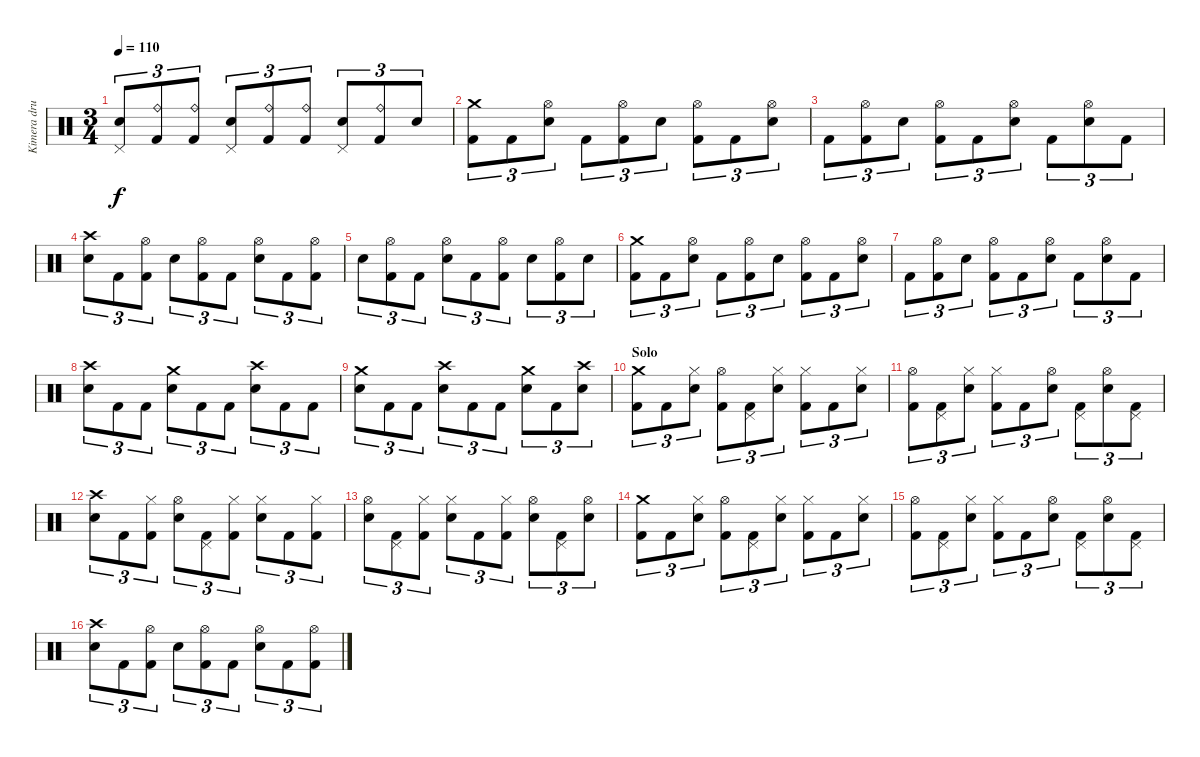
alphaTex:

\track ("Kimera drummer" "Kimera dru") {instrument percussion}
\staff {score}
\articulation defaults
\ts (3 4)
\tempo 110
\clef neutral
\ks c
("Electric Snare (hit)" "Pedal Hi-Hat (hit)").8{tu (3 2) dy f} ("Ride (bell)" "Kick (hit) 2").8{tu (3 2)} ("Ride (bell)" "Kick (hit) 2").8{tu (3 2)} ("Electric Snare (hit)" "Pedal Hi-Hat (hit)").8{tu (3 2)} ("Ride (bell)" "Kick (hit) 2").8{tu (3 2)} ("Ride (bell)" "Kick (hit) 2").8{tu (3 2)} ("Electric Snare (hit)" "Pedal Hi-Hat (hit)").8{tu (3 2)} ("Ride (bell)" "Kick (hit) 2").8{tu (3 2)} "Electric Snare (hit)".8{tu (3 2)} |
("Crash medium (hit)" "Kick (hit) 2").8{tu (3 2)} "Kick (hit) 2".8{tu (3 2)} ("Hi-Hat (open)" "Electric Snare (hit)").8{tu (3 2)} "Kick (hit) 2".8{tu (3 2)} ("Hi-Hat (open)" "Kick (hit) 2").8{tu (3 2)} "Electric Snare (hit)".8{tu (3 2)} ("Hi-Hat (open)" "Kick (hit) 2").8{tu (3 2)} "Kick (hit) 2".8{tu (3 2)} ("Hi-Hat (open)" "Electric Snare (hit)").8{tu (3 2)} |
"Kick (hit) 2".8{tu (3 2)} ("Hi-Hat (open)" "Kick (hit) 2").8{tu (3 2)} "Electric Snare (hit)".8{tu (3 2)} ("Hi-Hat (open)" "Kick (hit) 2").8{tu (3 2)} "Kick (hit) 2".8{tu (3 2)} ("Hi-Hat (open)" "Electric Snare (hit)").8{tu (3 2)} "Kick (hit) 2".8{tu (3 2)} ("Hi-Hat (open)" "Electric Snare (hit)").8{tu (3 2)} "Kick (hit) 2".8{tu (3 2)} |
("Crash high (hit)" "Electric Snare (hit)").8{tu (3 2)} "Kick (hit) 2".8{tu (3 2)} ("Hi-Hat (open)" "Kick (hit) 2").8{tu (3 2)} "Electric Snare (hit)".8{tu (3 2)} ("Hi-Hat (open)" "Kick (hit) 2").8{tu (3 2)} "Kick (hit) 2".8{tu (3 2)} ("Hi-Hat (open)" "Electric Snare (hit)").8{tu (3 2)} "Kick (hit) 2".8{tu (3 2)} ("Hi-Hat (open)" "Kick (hit) 2").8{tu (3 2)} |
"Electric Snare (hit)".8{tu (3 2)} ("Hi-Hat (open)" "Kick (hit) 2").8{tu (3 2)} "Kick (hit) 2".8{tu (3 2)} ("Hi-Hat (open)" "Electric Snare (hit)").8{tu (3 2)} "Kick (hit) 2".8{tu (3 2)} ("Hi-Hat (open)" "Kick (hit) 2").8{tu (3 2)} "Electric Snare (hit)".8{tu (3 2)} ("Hi-Hat (open)" "Kick (hit) 2").8{tu (3 2)} "Electric Snare (hit)".8{tu (3 2)} |
("Crash medium (hit)" "Kick (hit) 2").8{tu (3 2)} "Kick (hit) 2".8{tu (3 2)} ("Hi-Hat (open)" "Electric Snare (hit)").8{tu (3 2)} "Kick (hit) 2".8{tu (3 2)} ("Hi-Hat (open)" "Kick (hit) 2").8{tu (3 2)} "Electric Snare (hit)".8{tu (3 2)} ("Hi-Hat (open)" "Kick (hit) 2").8{tu (3 2)} "Kick (hit) 2".8{tu (3 2)} ("Hi-Hat (open)" "Electric Snare (hit)").8{tu (3 2)} |
"Kick (hit) 2".8{tu (3 2)} ("Hi-Hat (open)" "Kick (hit) 2").8{tu (3 2)} "Electric Snare (hit)".8{tu (3 2)} ("Hi-Hat (open)" "Kick (hit) 2").8{tu (3 2)} "Kick (hit) 2".8{tu (3 2)} ("Hi-Hat (open)" "Electric Snare (hit)").8{tu (3 2)} "Kick (hit) 2".8{tu (3 2)} ("Hi-Hat (open)" "Electric Snare (hit)").8{tu (3 2)} "Kick (hit) 2".8{tu (3 2)} |
("Crash high (hit)" "Electric Snare (hit)").8{tu (3 2)} "Kick (hit) 2".8{tu (3 2)} "Kick (hit) 2".8{tu (3 2)} ("Crash medium (hit)" "Electric Snare (hit)").8{tu (3 2)} "Kick (hit) 2".8{tu (3 2)} "Kick (hit) 2".8{tu (3 2)} ("Crash high (hit)" "Electric Snare (hit)").8{tu (3 2)} "Kick (hit) 2".8{tu (3 2)} "Kick (hit) 2".8{tu (3 2)} |
("Crash medium (hit)" "Electric Snare (hit)").8{tu (3 2)} "Kick (hit) 2".8{tu (3 2)} "Kick (hit) 2".8{tu (3 2)} ("Crash high (hit)" "Electric Snare (hit)").8{tu (3 2)} "Kick (hit) 2".8{tu (3 2)} "Kick (hit) 2".8{tu (3 2)} ("Crash medium (hit)" "Electric Snare (hit)").8{tu (3 2)} "Kick (hit) 2".8{tu (3 2)} ("Crash high (hit)" "Electric Snare (hit)").8{tu (3 2)} |
\section ("" "Solo")
("Crash medium (hit)" "Kick (hit) 2").8{tu (3 2)} "Kick (hit) 2".8{tu (3 2)} ("Hi-Hat (closed)" "Electric Snare (hit)").8{tu (3 2)} ("Hi-Hat (open)" "Kick (hit) 2").8{tu (3 2)} ("Pedal Hi-Hat (hit)" "Kick (hit) 2").8{tu (3 2)} ("Hi-Hat (closed)" "Electric Snare (hit)").8{tu (3 2)} ("Hi-Hat (closed)" "Kick (hit) 2").8{tu (3 2)} "Kick (hit) 2".8{tu (3 2)} ("Hi-Hat (closed)" "Electric Snare (hit)").8{tu (3 2)} |
("Hi-Hat (open)" "Kick (hit) 2").8{tu (3 2)} ("Pedal Hi-Hat (hit)" "Kick (hit) 2").8{tu (3 2)} ("Hi-Hat (closed)" "Electric Snare (hit)").8{tu (3 2)} ("Hi-Hat (closed)" "Kick (hit) 2").8{tu (3 2)} "Kick (hit) 2".8{tu (3 2)} ("Hi-Hat (open)" "Electric Snare (hit)").8{tu (3 2)} ("Pedal Hi-Hat (hit)" "Kick (hit) 2").8{tu (3 2)} ("Hi-Hat (open)" "Electric Snare (hit)").8{tu (3 2)} ("Pedal Hi-Hat (hit)" "Kick (hit) 2").8{tu (3 2)} |
("Crash high (hit)" "Electric Snare (hit)").8{tu (3 2)} "Kick (hit) 2".8{tu (3 2)} ("Hi-Hat (closed)" "Kick (hit) 2").8{tu (3 2)} ("Hi-Hat (open)" "Electric Snare (hit)").8{tu (3 2)} ("Pedal Hi-Hat (hit)" "Kick (hit) 2").8{tu (3 2)} ("Hi-Hat (closed)" "Kick (hit) 2").8{tu (3 2)} ("Hi-Hat (closed)" "Electric Snare (hit)").8{tu (3 2)} "Kick (hit) 2".8{tu (3 2)} ("Hi-Hat (closed)" "Kick (hit) 2").8{tu (3 2)} |
("Hi-Hat (open)" "Electric Snare (hit)").8{tu (3 2)} ("Pedal Hi-Hat (hit)" "Kick (hit) 2").8{tu (3 2)} ("Hi-Hat (closed)" "Kick (hit) 2").8{tu (3 2)} ("Hi-Hat (closed)" "Electric Snare (hit)").8{tu (3 2)} "Kick (hit) 2".8{tu (3 2)} ("Hi-Hat (closed)" "Kick (hit) 2").8{tu (3 2)} ("Hi-Hat (open)" "Electric Snare (hit)").8{tu (3 2)} ("Pedal Hi-Hat (hit)" "Kick (hit) 2").8{tu (3 2)} ("Hi-Hat (open)" "Electric Snare (hit)").8{tu (3 2)} |
("Crash medium (hit)" "Kick (hit) 2").8{tu (3 2)} "Kick (hit) 2".8{tu (3 2)} ("Hi-Hat (closed)" "Electric Snare (hit)").8{tu (3 2)} ("Hi-Hat (open)" "Kick (hit) 2").8{tu (3 2)} ("Pedal Hi-Hat (hit)" "Kick (hit) 2").8{tu (3 2)} ("Hi-Hat (closed)" "Electric Snare (hit)").8{tu (3 2)} ("Hi-Hat (closed)" "Kick (hit) 2").8{tu (3 2)} "Kick (hit) 2".8{tu (3 2)} ("Hi-Hat (closed)" "Electric Snare (hit)").8{tu (3 2)} |
("Hi-Hat (open)" "Kick (hit) 2").8{tu (3 2)} ("Pedal Hi-Hat (hit)" "Kick (hit) 2").8{tu (3 2)} ("Hi-Hat (closed)" "Electric Snare (hit)").8{tu (3 2)} ("Hi-Hat (closed)" "Kick (hit) 2").8{tu (3 2)} "Kick (hit) 2".8{tu (3 2)} ("Hi-Hat (open)" "Electric Snare (hit)").8{tu (3 2)} ("Pedal Hi-Hat (hit)" "Kick (hit) 2").8{tu (3 2)} ("Hi-Hat (open)" "Electric Snare (hit)").8{tu (3 2)} ("Pedal Hi-Hat (hit)" "Kick (hit) 2").8{tu (3 2)} |
("Crash high (hit)" "Electric Snare (hit)").8{tu (3 2)} "Kick (hit) 2".8{tu (3 2)} ("Hi-Hat (open)" "Kick (hit) 2").8{tu (3 2)} "Electric Snare (hit)".8{tu (3 2)} ("Hi-Hat (open)" "Kick (hit) 2").8{tu (3 2)} "Kick (hit) 2".8{tu (3 2)} ("Hi-Hat (open)" "Electric Snare (hit)").8{tu (3 2)} "Kick (hit) 2".8{tu (3 2)} ("Hi-Hat (open)" "Kick (hit) 2").8{tu (3 2)}
